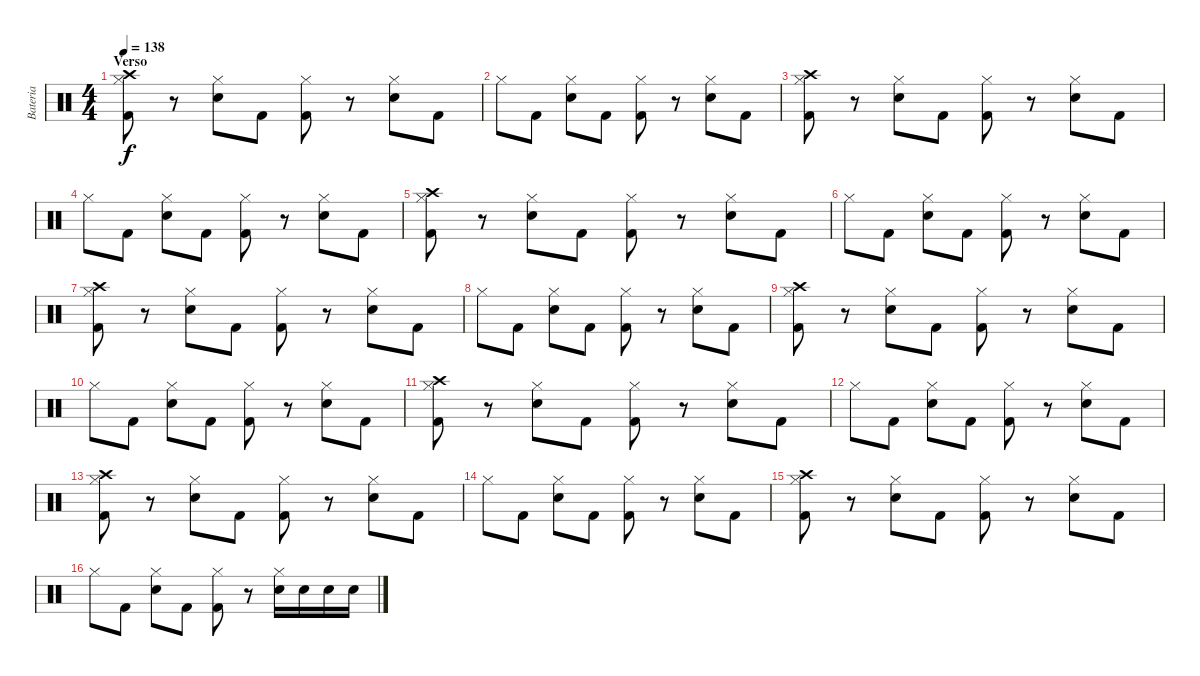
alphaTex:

\track ("Bateria" "Bateria") {instrument percussion}
\staff {score}
\articulation defaults
\ts (4 4)
\section ("" "Verso")
\tempo 138
\clef neutral
\ks c
("Crash high (hit)" "Hi-Hat (closed)" "Kick (hit) 2").8{dy f} r.8 ("Hi-Hat (closed)" "Electric Snare (hit)").8 "Kick (hit) 2".8 ("Hi-Hat (closed)" "Kick (hit) 2").8 r.8 ("Hi-Hat (closed)" "Electric Snare (hit)").8 "Kick (hit) 2".8 |
"Hi-Hat (closed)".8 "Kick (hit) 2".8 ("Hi-Hat (closed)" "Electric Snare (hit)").8 "Kick (hit) 2".8 ("Hi-Hat (closed)" "Kick (hit) 2").8 r.8 ("Hi-Hat (closed)" "Electric Snare (hit)").8 "Kick (hit) 2".8 |
("Crash high (hit)" "Hi-Hat (closed)" "Kick (hit) 2").8 r.8 ("Hi-Hat (closed)" "Electric Snare (hit)").8 "Kick (hit) 2".8 ("Hi-Hat (closed)" "Kick (hit) 2").8 r.8 ("Hi-Hat (closed)" "Electric Snare (hit)").8 "Kick (hit) 2".8 |
"Hi-Hat (closed)".8 "Kick (hit) 2".8 ("Hi-Hat (closed)" "Electric Snare (hit)").8 "Kick (hit) 2".8 ("Hi-Hat (closed)" "Kick (hit) 2").8 r.8 ("Hi-Hat (closed)" "Electric Snare (hit)").8 "Kick (hit) 2".8 |
("Crash high (hit)" "Hi-Hat (closed)" "Kick (hit) 2").8 r.8 ("Hi-Hat (closed)" "Electric Snare (hit)").8 "Kick (hit) 2".8 ("Hi-Hat (closed)" "Kick (hit) 2").8 r.8 ("Hi-Hat (closed)" "Electric Snare (hit)").8 "Kick (hit) 2".8 |
"Hi-Hat (closed)".8 "Kick (hit) 2".8 ("Hi-Hat (closed)" "Electric Snare (hit)").8 "Kick (hit) 2".8 ("Hi-Hat (closed)" "Kick (hit) 2").8 r.8 ("Hi-Hat (closed)" "Electric Snare (hit)").8 "Kick (hit) 2".8 |
("Crash high (hit)" "Hi-Hat (closed)" "Kick (hit) 2").8 r.8 ("Hi-Hat (closed)" "Electric Snare (hit)").8 "Kick (hit) 2".8 ("Hi-Hat (closed)" "Kick (hit) 2").8 r.8 ("Hi-Hat (closed)" "Electric Snare (hit)").8 "Kick (hit) 2".8 |
"Hi-Hat (closed)".8 "Kick (hit) 2".8 ("Hi-Hat (closed)" "Electric Snare (hit)").8 "Kick (hit) 2".8 ("Hi-Hat (closed)" "Kick (hit) 2").8 r.8 ("Hi-Hat (closed)" "Electric Snare (hit)").8 "Kick (hit) 2".8 |
("Crash high (hit)" "Hi-Hat (closed)" "Kick (hit) 2").8 r.8 ("Hi-Hat (closed)" "Electric Snare (hit)").8 "Kick (hit) 2".8 ("Hi-Hat (closed)" "Kick (hit) 2").8 r.8 ("Hi-Hat (closed)" "Electric Snare (hit)").8 "Kick (hit) 2".8 |
"Hi-Hat (closed)".8 "Kick (hit) 2".8 ("Hi-Hat (closed)" "Electric Snare (hit)").8 "Kick (hit) 2".8 ("Hi-Hat (closed)" "Kick (hit) 2").8 r.8 ("Hi-Hat (closed)" "Electric Snare (hit)").8 "Kick (hit) 2".8 |
("Crash high (hit)" "Hi-Hat (closed)" "Kick (hit) 2").8 r.8 ("Hi-Hat (closed)" "Electric Snare (hit)").8 "Kick (hit) 2".8 ("Hi-Hat (closed)" "Kick (hit) 2").8 r.8 ("Hi-Hat (closed)" "Electric Snare (hit)").8 "Kick (hit) 2".8 |
"Hi-Hat (closed)".8 "Kick (hit) 2".8 ("Hi-Hat (closed)" "Electric Snare (hit)").8 "Kick (hit) 2".8 ("Hi-Hat (closed)" "Kick (hit) 2").8 r.8 ("Hi-Hat (closed)" "Electric Snare (hit)").8 "Kick (hit) 2".8 |
("Crash high (hit)" "Hi-Hat (closed)" "Kick (hit) 2").8 r.8 ("Hi-Hat (closed)" "Electric Snare (hit)").8 "Kick (hit) 2".8 ("Hi-Hat (closed)" "Kick (hit) 2").8 r.8 ("Hi-Hat (closed)" "Electric Snare (hit)").8 "Kick (hit) 2".8 |
"Hi-Hat (closed)".8 "Kick (hit) 2".8 ("Hi-Hat (closed)" "Electric Snare (hit)").8 "Kick (hit) 2".8 ("Hi-Hat (closed)" "Kick (hit) 2").8 r.8 ("Hi-Hat (closed)" "Electric Snare (hit)").8 "Kick (hit) 2".8 |
("Crash high (hit)" "Hi-Hat (closed)" "Kick (hit) 2").8 r.8 ("Hi-Hat (closed)" "Electric Snare (hit)").8 "Kick (hit) 2".8 ("Hi-Hat (closed)" "Kick (hit) 2").8 r.8 ("Hi-Hat (closed)" "Electric Snare (hit)").8 "Kick (hit) 2".8 |
"Hi-Hat (closed)".8 "Kick (hit) 2".8 ("Hi-Hat (closed)" "Electric Snare (hit)").8 "Kick (hit) 2".8 ("Hi-Hat (closed)" "Kick (hit) 2").8 r.8 ("Hi-Hat (closed)" "Electric Snare (hit)").16 "Electric Snare (hit)".16 "Electric Snare (hit)".16 "Electric Snare (hit)".16
